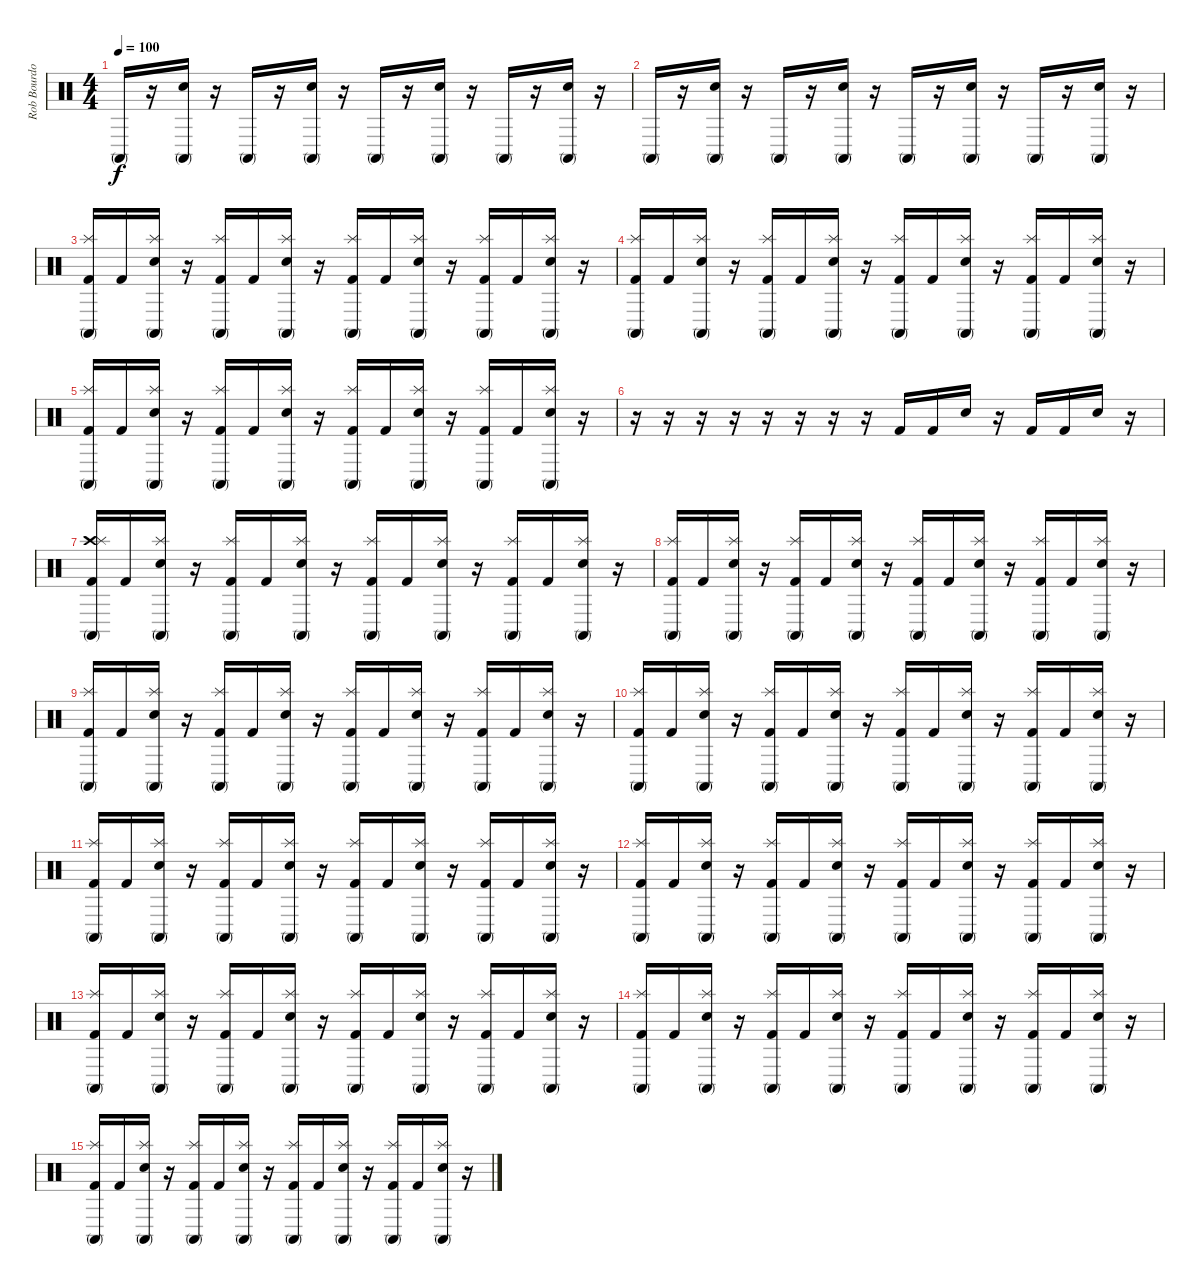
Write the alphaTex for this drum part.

\track ("Rob Bourdon" "Rob Bourdo") {instrument percussion}
\staff {score}
\articulation defaults
\ts (4 4)
\tempo 100
\clef neutral
\ks c "Conga high (mute)".16{dy f}
r.16 ("Conga high (mute)" "Electric Snare (hit)").16 r.16 "Conga high (mute)".16 r.16 ("Conga high (mute)" "Electric Snare (hit)").16 r.16 "Conga high (mute)".16 r.16 ("Conga high (mute)" "Electric Snare (hit)").16 r.16 "Conga high (mute)".16 r.16 ("Conga high (mute)" "Electric Snare (hit)").16 r.16 |
"Conga high (mute)".16 r.16 ("Conga high (mute)" "Electric Snare (hit)").16 r.16 "Conga high (mute)".16 r.16 ("Conga high (mute)" "Electric Snare (hit)").16 r.16 "Conga high (mute)".16 r.16 ("Conga high (mute)" "Electric Snare (hit)").16 r.16 "Conga high (mute)".16 r.16 ("Conga high (mute)" "Electric Snare (hit)").16 r.16 |
("Conga high (mute)" "Splash (hit)" "Kick (hit) 2").16 "Kick (hit) 2".16 ("Conga high (mute)" "Splash (hit)" "Electric Snare (hit)").16 r.16 ("Conga high (mute)" "Splash (hit)" "Kick (hit) 2").16 "Kick (hit) 2".16 ("Conga high (mute)" "Splash (hit)" "Electric Snare (hit)").16 r.16 ("Conga high (mute)" "Splash (hit)" "Kick (hit) 2").16 "Kick (hit) 2".16 ("Conga high (mute)" "Splash (hit)" "Electric Snare (hit)").16 r.16 ("Conga high (mute)" "Splash (hit)" "Kick (hit) 2").16 "Kick (hit) 2".16 ("Conga high (mute)" "Splash (hit)" "Electric Snare (hit)").16 r.16 |
("Conga high (mute)" "Splash (hit)" "Kick (hit) 2").16 "Kick (hit) 2".16 ("Conga high (mute)" "Splash (hit)" "Electric Snare (hit)").16 r.16 ("Conga high (mute)" "Splash (hit)" "Kick (hit) 2").16 "Kick (hit) 2".16 ("Conga high (mute)" "Splash (hit)" "Electric Snare (hit)").16 r.16 ("Conga high (mute)" "Splash (hit)" "Kick (hit) 2").16 "Kick (hit) 2".16 ("Conga high (mute)" "Splash (hit)" "Electric Snare (hit)").16 r.16 ("Conga high (mute)" "Splash (hit)" "Kick (hit) 2").16 "Kick (hit) 2".16 ("Conga high (mute)" "Splash (hit)" "Electric Snare (hit)").16 r.16 |
("Conga high (mute)" "Splash (hit)" "Kick (hit) 2").16 "Kick (hit) 2".16 ("Conga high (mute)" "Splash (hit)" "Electric Snare (hit)").16 r.16 ("Conga high (mute)" "Splash (hit)" "Kick (hit) 2").16 "Kick (hit) 2".16 ("Conga high (mute)" "Splash (hit)" "Electric Snare (hit)").16 r.16 ("Conga high (mute)" "Splash (hit)" "Kick (hit) 2").16 "Kick (hit) 2".16 ("Conga high (mute)" "Splash (hit)" "Electric Snare (hit)").16 r.16 ("Conga high (mute)" "Splash (hit)" "Kick (hit) 2").16 "Kick (hit) 2".16 ("Conga high (mute)" "Splash (hit)" "Electric Snare (hit)").16 r.16 |
r.16 r.16 r.16 r.16 r.16 r.16 r.16 r.16 "Kick (hit) 2".16 "Kick (hit) 2".16 "Electric Snare (hit)".16 r.16 "Kick (hit) 2".16 "Kick (hit) 2".16 "Electric Snare (hit)".16 r.16 |
("Conga high (mute)" "Crash high (hit)" "Splash (hit)" "Kick (hit) 2").16 "Kick (hit) 2".16 ("Conga high (mute)" "Splash (hit)" "Electric Snare (hit)").16 r.16 ("Conga high (mute)" "Splash (hit)" "Kick (hit) 2").16 "Kick (hit) 2".16 ("Conga high (mute)" "Splash (hit)" "Electric Snare (hit)").16 r.16 ("Conga high (mute)" "Splash (hit)" "Kick (hit) 2").16 "Kick (hit) 2".16 ("Conga high (mute)" "Splash (hit)" "Electric Snare (hit)").16 r.16 ("Conga high (mute)" "Splash (hit)" "Kick (hit) 2").16 "Kick (hit) 2".16 ("Conga high (mute)" "Splash (hit)" "Electric Snare (hit)").16 r.16 |
("Conga high (mute)" "Splash (hit)" "Kick (hit) 2").16 "Kick (hit) 2".16 ("Conga high (mute)" "Splash (hit)" "Electric Snare (hit)").16 r.16 ("Conga high (mute)" "Splash (hit)" "Kick (hit) 2").16 "Kick (hit) 2".16 ("Conga high (mute)" "Splash (hit)" "Electric Snare (hit)").16 r.16 ("Conga high (mute)" "Splash (hit)" "Kick (hit) 2").16 "Kick (hit) 2".16 ("Conga high (mute)" "Splash (hit)" "Electric Snare (hit)").16 r.16 ("Conga high (mute)" "Splash (hit)" "Kick (hit) 2").16 "Kick (hit) 2".16 ("Conga high (mute)" "Splash (hit)" "Electric Snare (hit)").16 r.16 |
("Conga high (mute)" "Splash (hit)" "Kick (hit) 2").16 "Kick (hit) 2".16 ("Conga high (mute)" "Splash (hit)" "Electric Snare (hit)").16 r.16 ("Conga high (mute)" "Splash (hit)" "Kick (hit) 2").16 "Kick (hit) 2".16 ("Conga high (mute)" "Splash (hit)" "Electric Snare (hit)").16 r.16 ("Conga high (mute)" "Splash (hit)" "Kick (hit) 2").16 "Kick (hit) 2".16 ("Conga high (mute)" "Splash (hit)" "Electric Snare (hit)").16 r.16 ("Conga high (mute)" "Splash (hit)" "Kick (hit) 2").16 "Kick (hit) 2".16 ("Conga high (mute)" "Splash (hit)" "Electric Snare (hit)").16 r.16 |
("Conga high (mute)" "Splash (hit)" "Kick (hit) 2").16 "Kick (hit) 2".16 ("Conga high (mute)" "Splash (hit)" "Electric Snare (hit)").16 r.16 ("Conga high (mute)" "Splash (hit)" "Kick (hit) 2").16 "Kick (hit) 2".16 ("Conga high (mute)" "Splash (hit)" "Electric Snare (hit)").16 r.16 ("Conga high (mute)" "Splash (hit)" "Kick (hit) 2").16 "Kick (hit) 2".16 ("Conga high (mute)" "Splash (hit)" "Electric Snare (hit)").16 r.16 ("Conga high (mute)" "Splash (hit)" "Kick (hit) 2").16 "Kick (hit) 2".16 ("Conga high (mute)" "Splash (hit)" "Electric Snare (hit)").16 r.16 |
("Conga high (mute)" "Splash (hit)" "Kick (hit) 2").16 "Kick (hit) 2".16 ("Conga high (mute)" "Splash (hit)" "Electric Snare (hit)").16 r.16 ("Conga high (mute)" "Splash (hit)" "Kick (hit) 2").16 "Kick (hit) 2".16 ("Conga high (mute)" "Splash (hit)" "Electric Snare (hit)").16 r.16 ("Conga high (mute)" "Splash (hit)" "Kick (hit) 2").16 "Kick (hit) 2".16 ("Conga high (mute)" "Splash (hit)" "Electric Snare (hit)").16 r.16 ("Conga high (mute)" "Splash (hit)" "Kick (hit) 2").16 "Kick (hit) 2".16 ("Conga high (mute)" "Splash (hit)" "Electric Snare (hit)").16 r.16 |
("Conga high (mute)" "Splash (hit)" "Kick (hit) 2").16 "Kick (hit) 2".16 ("Conga high (mute)" "Splash (hit)" "Electric Snare (hit)").16 r.16 ("Conga high (mute)" "Splash (hit)" "Kick (hit) 2").16 "Kick (hit) 2".16 ("Conga high (mute)" "Splash (hit)" "Electric Snare (hit)").16 r.16 ("Conga high (mute)" "Splash (hit)" "Kick (hit) 2").16 "Kick (hit) 2".16 ("Conga high (mute)" "Splash (hit)" "Electric Snare (hit)").16 r.16 ("Conga high (mute)" "Splash (hit)" "Kick (hit) 2").16 "Kick (hit) 2".16 ("Conga high (mute)" "Splash (hit)" "Electric Snare (hit)").16 r.16 |
("Conga high (mute)" "Splash (hit)" "Kick (hit) 2").16 "Kick (hit) 2".16 ("Conga high (mute)" "Splash (hit)" "Electric Snare (hit)").16 r.16 ("Conga high (mute)" "Splash (hit)" "Kick (hit) 2").16 "Kick (hit) 2".16 ("Conga high (mute)" "Splash (hit)" "Electric Snare (hit)").16 r.16 ("Conga high (mute)" "Splash (hit)" "Kick (hit) 2").16 "Kick (hit) 2".16 ("Conga high (mute)" "Splash (hit)" "Electric Snare (hit)").16 r.16 ("Conga high (mute)" "Splash (hit)" "Kick (hit) 2").16 "Kick (hit) 2".16 ("Conga high (mute)" "Splash (hit)" "Electric Snare (hit)").16 r.16 |
("Conga high (mute)" "Splash (hit)" "Kick (hit) 2").16 "Kick (hit) 2".16 ("Conga high (mute)" "Splash (hit)" "Electric Snare (hit)").16 r.16 ("Conga high (mute)" "Splash (hit)" "Kick (hit) 2").16 "Kick (hit) 2".16 ("Conga high (mute)" "Splash (hit)" "Electric Snare (hit)").16 r.16 ("Conga high (mute)" "Splash (hit)" "Kick (hit) 2").16 "Kick (hit) 2".16 ("Conga high (mute)" "Splash (hit)" "Electric Snare (hit)").16 r.16 ("Conga high (mute)" "Splash (hit)" "Kick (hit) 2").16 "Kick (hit) 2".16 ("Conga high (mute)" "Splash (hit)" "Electric Snare (hit)").16 r.16 |
("Conga high (mute)" "Splash (hit)" "Kick (hit) 2").16 "Kick (hit) 2".16 ("Conga high (mute)" "Splash (hit)" "Electric Snare (hit)").16 r.16 ("Conga high (mute)" "Splash (hit)" "Kick (hit) 2").16 "Kick (hit) 2".16 ("Conga high (mute)" "Splash (hit)" "Electric Snare (hit)").16 r.16 ("Conga high (mute)" "Splash (hit)" "Kick (hit) 2").16 "Kick (hit) 2".16 ("Conga high (mute)" "Splash (hit)" "Electric Snare (hit)").16 r.16 ("Conga high (mute)" "Splash (hit)" "Kick (hit) 2").16 "Kick (hit) 2".16 ("Conga high (mute)" "Splash (hit)" "Electric Snare (hit)").16 r.16
